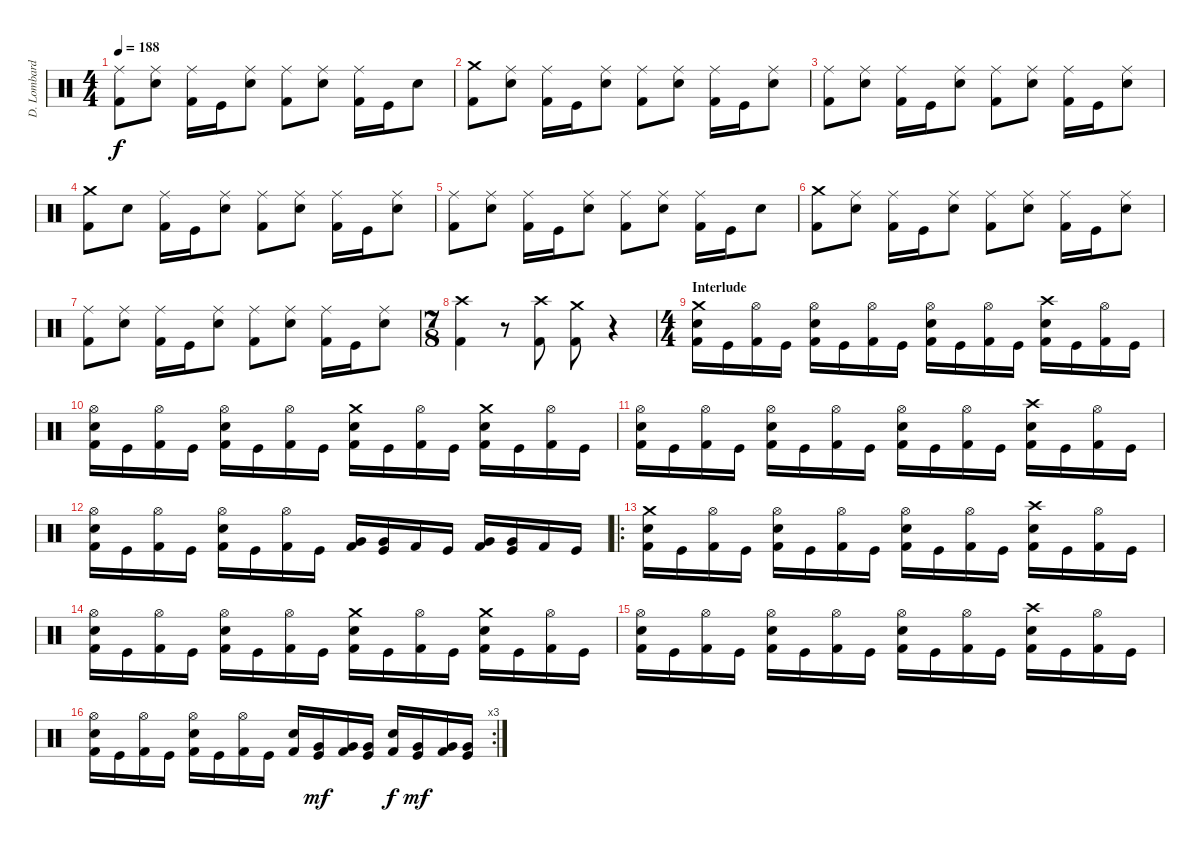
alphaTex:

\track ("D. Lombardo" "D. Lombard") {instrument percussion}
\staff {score}
\articulation defaults
\ts (4 4)
\tempo 188
\clef neutral
\ks c
("Ride (middle)" "Kick (hit) 2").8{dy f} ("Ride (middle)" "Electric Snare (hit)").8 ("Ride (middle)" "Kick (hit) 2").16 "Kick (hit)".16 ("Ride (middle)" "Electric Snare (hit)").8 ("Ride (middle)" "Kick (hit) 2").8 ("Ride (middle)" "Electric Snare (hit)").8 ("Ride (middle)" "Kick (hit) 2").16 "Kick (hit)".16 "Electric Snare (hit)".8 |
("Crash medium (hit)" "Kick (hit) 2").8 ("Ride (middle)" "Electric Snare (hit)").8 ("Ride (middle)" "Kick (hit) 2").16 "Kick (hit)".16 ("Ride (middle)" "Electric Snare (hit)").8 ("Ride (middle)" "Kick (hit) 2").8 ("Ride (middle)" "Electric Snare (hit)").8 ("Ride (middle)" "Kick (hit) 2").16 "Kick (hit)".16 ("Ride (middle)" "Electric Snare (hit)").8 |
("Ride (middle)" "Kick (hit) 2").8 ("Ride (middle)" "Electric Snare (hit)").8 ("Ride (middle)" "Kick (hit) 2").16 "Kick (hit)".16 ("Ride (middle)" "Electric Snare (hit)").8 ("Ride (middle)" "Kick (hit) 2").8 ("Ride (middle)" "Electric Snare (hit)").8 ("Ride (middle)" "Kick (hit) 2").16 "Kick (hit)".16 ("Ride (middle)" "Electric Snare (hit)").8 |
("Crash medium (hit)" "Kick (hit) 2").8 "Electric Snare (hit)".8 ("Ride (middle)" "Kick (hit) 2").16 "Kick (hit)".16 ("Ride (middle)" "Electric Snare (hit)").8 ("Ride (middle)" "Kick (hit) 2").8 ("Ride (middle)" "Electric Snare (hit)").8 ("Ride (middle)" "Kick (hit) 2").16 "Kick (hit)".16 ("Ride (middle)" "Electric Snare (hit)").8 |
("Ride (middle)" "Kick (hit) 2").8 ("Ride (middle)" "Electric Snare (hit)").8 ("Ride (middle)" "Kick (hit) 2").16 "Kick (hit)".16 ("Ride (middle)" "Electric Snare (hit)").8 ("Ride (middle)" "Kick (hit) 2").8 ("Ride (middle)" "Electric Snare (hit)").8 ("Ride (middle)" "Kick (hit) 2").16 "Kick (hit)".16 "Electric Snare (hit)".8 |
("Crash medium (hit)" "Kick (hit) 2").8 ("Ride (middle)" "Electric Snare (hit)").8 ("Ride (middle)" "Kick (hit) 2").16 "Kick (hit)".16 ("Ride (middle)" "Electric Snare (hit)").8 ("Ride (middle)" "Kick (hit) 2").8 ("Ride (middle)" "Electric Snare (hit)").8 ("Ride (middle)" "Kick (hit) 2").16 "Kick (hit)".16 ("Ride (middle)" "Electric Snare (hit)").8 |
("Ride (middle)" "Kick (hit) 2").8 ("Ride (middle)" "Electric Snare (hit)").8 ("Ride (middle)" "Kick (hit) 2").16 "Kick (hit)".16 ("Ride (middle)" "Electric Snare (hit)").8 ("Ride (middle)" "Kick (hit) 2").8 ("Ride (middle)" "Electric Snare (hit)").8 ("Ride (middle)" "Kick (hit) 2").16 "Kick (hit)".16 ("Ride (middle)" "Electric Snare (hit)").8 |
\ts (7 8)
("Crash high (hit)" "Kick (hit) 2").4 r.8 ("Crash high (hit)" "Kick (hit) 2").8 ("Crash medium (hit)" "Kick (hit) 2").8 r.4 |
\ts (4 4)
\section ("" "Interlude")
("Crash medium (hit)" "Electric Snare (hit)" "Kick (hit) 2").16 "Kick (hit)".16 ("Hi-Hat (open)" "Kick (hit) 2").16 "Kick (hit)".16 ("Hi-Hat (open)" "Electric Snare (hit)" "Kick (hit) 2").16 "Kick (hit)".16 ("Hi-Hat (open)" "Kick (hit) 2").16 "Kick (hit)".16 ("Hi-Hat (open)" "Electric Snare (hit)" "Kick (hit) 2").16 "Kick (hit)".16 ("Hi-Hat (open)" "Kick (hit) 2").16 "Kick (hit)".16 ("Crash high (hit)" "Electric Snare (hit)" "Kick (hit) 2").16 "Kick (hit)".16 ("Hi-Hat (open)" "Kick (hit) 2").16 "Kick (hit)".16 |
("Hi-Hat (open)" "Electric Snare (hit)" "Kick (hit) 2").16 "Kick (hit)".16 ("Hi-Hat (open)" "Kick (hit) 2").16 "Kick (hit)".16 ("Hi-Hat (open)" "Electric Snare (hit)" "Kick (hit) 2").16 "Kick (hit)".16 ("Hi-Hat (open)" "Kick (hit) 2").16 "Kick (hit)".16 ("Crash medium (hit)" "Electric Snare (hit)" "Kick (hit) 2").16 "Kick (hit)".16 ("Hi-Hat (open)" "Kick (hit) 2").16 "Kick (hit)".16 ("Crash medium (hit)" "Electric Snare (hit)" "Kick (hit) 2").16 "Kick (hit)".16 ("Hi-Hat (open)" "Kick (hit) 2").16 "Kick (hit)".16 |
("Hi-Hat (open)" "Electric Snare (hit)" "Kick (hit) 2").16 "Kick (hit)".16 ("Hi-Hat (open)" "Kick (hit) 2").16 "Kick (hit)".16 ("Hi-Hat (open)" "Electric Snare (hit)" "Kick (hit) 2").16 "Kick (hit)".16 ("Hi-Hat (open)" "Kick (hit) 2").16 "Kick (hit)".16 ("Hi-Hat (open)" "Electric Snare (hit)" "Kick (hit) 2").16 "Kick (hit)".16 ("Hi-Hat (open)" "Kick (hit) 2").16 "Kick (hit)".16 ("Crash high (hit)" "Electric Snare (hit)" "Kick (hit) 2").16 "Kick (hit)".16 ("Hi-Hat (open)" "Kick (hit) 2").16 "Kick (hit)".16 |
("Hi-Hat (open)" "Electric Snare (hit)" "Kick (hit) 2").16 "Kick (hit)".16 ("Hi-Hat (open)" "Kick (hit) 2").16 "Kick (hit)".16 ("Hi-Hat (open)" "Electric Snare (hit)" "Kick (hit) 2").16 "Kick (hit)".16 ("Hi-Hat (open)" "Kick (hit) 2").16 "Kick (hit)".16 ("Very Low Tom (hit)" "Kick (hit) 2").16 ("Very Low Tom (hit)" "Kick (hit)").16 "Kick (hit) 2".16 "Kick (hit)".16 ("Very Low Tom (hit)" "Kick (hit) 2").16 ("Very Low Tom (hit)" "Kick (hit)").16 "Kick (hit) 2".16 "Kick (hit)".16 |
\ro
("Crash medium (hit)" "Electric Snare (hit)" "Kick (hit) 2").16 "Kick (hit)".16 ("Hi-Hat (open)" "Kick (hit) 2").16 "Kick (hit)".16 ("Hi-Hat (open)" "Electric Snare (hit)" "Kick (hit) 2").16 "Kick (hit)".16 ("Hi-Hat (open)" "Kick (hit) 2").16 "Kick (hit)".16 ("Hi-Hat (open)" "Electric Snare (hit)" "Kick (hit) 2").16 "Kick (hit)".16 ("Hi-Hat (open)" "Kick (hit) 2").16 "Kick (hit)".16 ("Crash high (hit)" "Electric Snare (hit)" "Kick (hit) 2").16 "Kick (hit)".16 ("Hi-Hat (open)" "Kick (hit) 2").16 "Kick (hit)".16 |
("Hi-Hat (open)" "Electric Snare (hit)" "Kick (hit) 2").16 "Kick (hit)".16 ("Hi-Hat (open)" "Kick (hit) 2").16 "Kick (hit)".16 ("Hi-Hat (open)" "Electric Snare (hit)" "Kick (hit) 2").16 "Kick (hit)".16 ("Hi-Hat (open)" "Kick (hit) 2").16 "Kick (hit)".16 ("Crash medium (hit)" "Electric Snare (hit)" "Kick (hit) 2").16 "Kick (hit)".16 ("Hi-Hat (open)" "Kick (hit) 2").16 "Kick (hit)".16 ("Crash medium (hit)" "Electric Snare (hit)" "Kick (hit) 2").16 "Kick (hit)".16 ("Hi-Hat (open)" "Kick (hit) 2").16 "Kick (hit)".16 |
("Hi-Hat (open)" "Electric Snare (hit)" "Kick (hit) 2").16 "Kick (hit)".16 ("Hi-Hat (open)" "Kick (hit) 2").16 "Kick (hit)".16 ("Hi-Hat (open)" "Electric Snare (hit)" "Kick (hit) 2").16 "Kick (hit)".16 ("Hi-Hat (open)" "Kick (hit) 2").16 "Kick (hit)".16 ("Hi-Hat (open)" "Electric Snare (hit)" "Kick (hit) 2").16 "Kick (hit)".16 ("Hi-Hat (open)" "Kick (hit) 2").16 "Kick (hit)".16 ("Crash high (hit)" "Electric Snare (hit)" "Kick (hit) 2").16 "Kick (hit)".16 ("Hi-Hat (open)" "Kick (hit) 2").16 "Kick (hit)".16 |
\rc 3
("Hi-Hat (open)" "Electric Snare (hit)" "Kick (hit) 2").16 "Kick (hit)".16 ("Hi-Hat (open)" "Kick (hit) 2").16 "Kick (hit)".16 ("Hi-Hat (open)" "Electric Snare (hit)" "Kick (hit) 2").16 "Kick (hit)".16 ("Hi-Hat (open)" "Kick (hit) 2").16 "Kick (hit)".16 ("Electric Snare (hit)" "Kick (hit) 2").16 ("Very Low Tom (hit)" "Kick (hit)").16{dy mf} ("Very Low Tom (hit)" "Kick (hit) 2").16 ("Very Low Tom (hit)" "Kick (hit)").16 ("Electric Snare (hit)" "Kick (hit) 2").16{dy f} ("Very Low Tom (hit)" "Kick (hit)").16{dy mf} ("Very Low Tom (hit)" "Kick (hit) 2").16 ("Very Low Tom (hit)" "Kick (hit)").16
